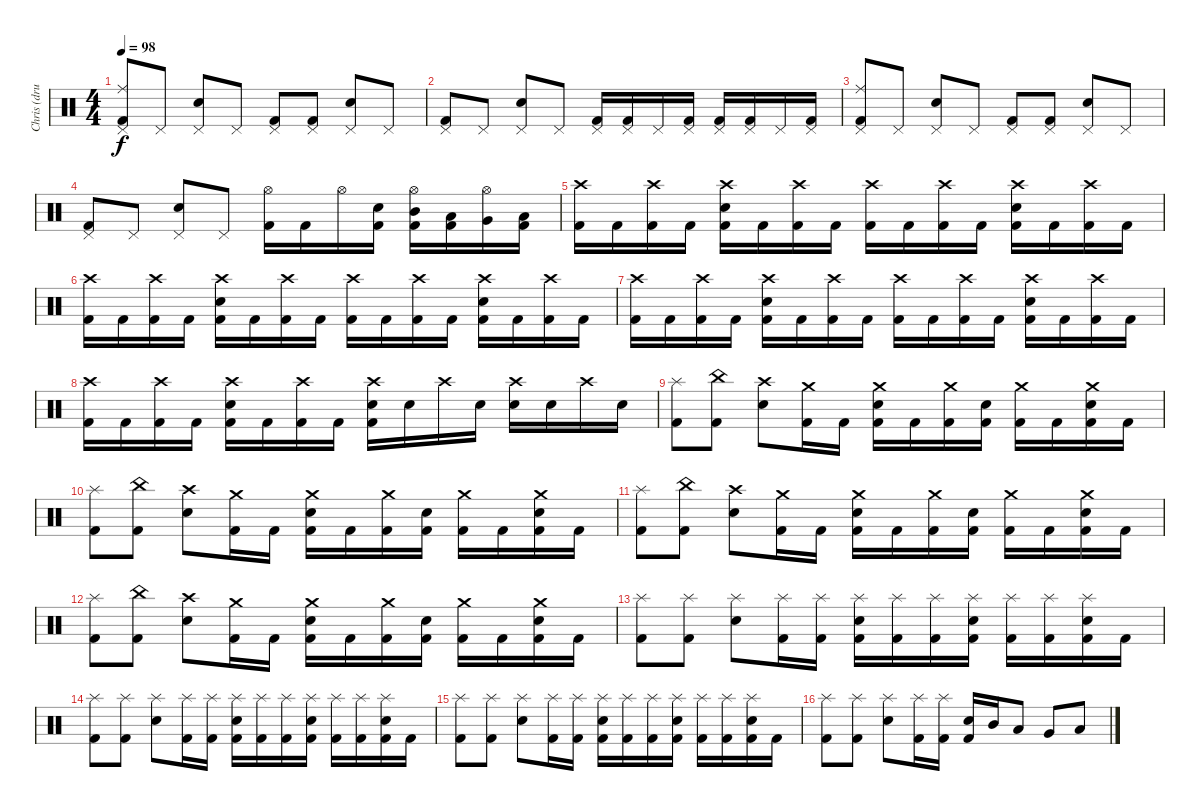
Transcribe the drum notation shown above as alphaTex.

\track ("Chris (drums)" "Chris (dru") {instrument percussion}
\staff {score}
\articulation defaults
\ts (4 4)
\tempo 98
\clef neutral
\ks c
("Ride (middle)" "Pedal Hi-Hat (hit)" "Kick (hit) 2").8{dy f} "Pedal Hi-Hat (hit)".8 ("Pedal Hi-Hat (hit)" "Electric Snare (hit)").8 "Pedal Hi-Hat (hit)".8 ("Pedal Hi-Hat (hit)" "Kick (hit) 2").8 ("Pedal Hi-Hat (hit)" "Kick (hit) 2").8 ("Pedal Hi-Hat (hit)" "Electric Snare (hit)").8 "Pedal Hi-Hat (hit)".8 |
("Pedal Hi-Hat (hit)" "Kick (hit) 2").8 "Pedal Hi-Hat (hit)".8 ("Pedal Hi-Hat (hit)" "Electric Snare (hit)").8 "Pedal Hi-Hat (hit)".8 ("Pedal Hi-Hat (hit)" "Kick (hit) 2").16 ("Pedal Hi-Hat (hit)" "Kick (hit) 2").16 "Pedal Hi-Hat (hit)".16 ("Pedal Hi-Hat (hit)" "Kick (hit) 2").16 ("Pedal Hi-Hat (hit)" "Kick (hit) 2").16 ("Pedal Hi-Hat (hit)" "Kick (hit) 2").16 "Pedal Hi-Hat (hit)".16 ("Pedal Hi-Hat (hit)" "Kick (hit) 2").16 |
("Ride (middle)" "Pedal Hi-Hat (hit)" "Kick (hit) 2").8 "Pedal Hi-Hat (hit)".8 ("Pedal Hi-Hat (hit)" "Electric Snare (hit)").8 "Pedal Hi-Hat (hit)".8 ("Pedal Hi-Hat (hit)" "Kick (hit) 2").8 ("Pedal Hi-Hat (hit)" "Kick (hit) 2").8 ("Pedal Hi-Hat (hit)" "Electric Snare (hit)").8 "Pedal Hi-Hat (hit)".8 |
("Pedal Hi-Hat (hit)" "Kick (hit) 2").8 "Pedal Hi-Hat (hit)".8 ("Pedal Hi-Hat (hit)" "Electric Snare (hit)").8 "Pedal Hi-Hat (hit)".8 ("Hi-Hat (open)" "Kick (hit) 2").16 "Kick (hit) 2".16 "Hi-Hat (open)".16 ("Electric Snare (hit)" "Kick (hit) 2").16 ("Hi-Hat (open)" "Mid Tom (hit)" "Kick (hit) 2").16 ("Low Tom (hit)" "Kick (hit) 2").16 ("Hi-Hat (open)" "Very Low Tom (hit)").16 ("Low Floor Tom (hit)" "Kick (hit) 2").16 |
("Crash high (hit)" "Kick (hit) 2").16 "Kick (hit) 2".16 ("Crash high (hit)" "Kick (hit) 2").16 "Kick (hit) 2".16 ("Crash high (hit)" "Electric Snare (hit)" "Kick (hit) 2").16 "Kick (hit) 2".16 ("Crash high (hit)" "Kick (hit) 2").16 "Kick (hit) 2".16 ("Crash high (hit)" "Kick (hit) 2").16 "Kick (hit) 2".16 ("Crash high (hit)" "Kick (hit) 2").16 "Kick (hit) 2".16 ("Crash high (hit)" "Electric Snare (hit)" "Kick (hit) 2").16 "Kick (hit) 2".16 ("Crash high (hit)" "Kick (hit) 2").16 "Kick (hit) 2".16 |
("Crash high (hit)" "Kick (hit) 2").16 "Kick (hit) 2".16 ("Crash high (hit)" "Kick (hit) 2").16 "Kick (hit) 2".16 ("Crash high (hit)" "Electric Snare (hit)" "Kick (hit) 2").16 "Kick (hit) 2".16 ("Crash high (hit)" "Kick (hit) 2").16 "Kick (hit) 2".16 ("Crash high (hit)" "Kick (hit) 2").16 "Kick (hit) 2".16 ("Crash high (hit)" "Kick (hit) 2").16 "Kick (hit) 2".16 ("Crash high (hit)" "Electric Snare (hit)" "Kick (hit) 2").16 "Kick (hit) 2".16 ("Crash high (hit)" "Kick (hit) 2").16 "Kick (hit) 2".16 |
("Crash high (hit)" "Kick (hit) 2").16 "Kick (hit) 2".16 ("Crash high (hit)" "Kick (hit) 2").16 "Kick (hit) 2".16 ("Crash high (hit)" "Electric Snare (hit)" "Kick (hit) 2").16 "Kick (hit) 2".16 ("Crash high (hit)" "Kick (hit) 2").16 "Kick (hit) 2".16 ("Crash high (hit)" "Kick (hit) 2").16 "Kick (hit) 2".16 ("Crash high (hit)" "Kick (hit) 2").16 "Kick (hit) 2".16 ("Crash high (hit)" "Electric Snare (hit)" "Kick (hit) 2").16 "Kick (hit) 2".16 ("Crash high (hit)" "Kick (hit) 2").16 "Kick (hit) 2".16 |
("Crash high (hit)" "Kick (hit) 2").16 "Kick (hit) 2".16 ("Crash high (hit)" "Kick (hit) 2").16 "Kick (hit) 2".16 ("Crash high (hit)" "Electric Snare (hit)" "Kick (hit) 2").16 "Kick (hit) 2".16 ("Crash high (hit)" "Kick (hit) 2").16 "Kick (hit) 2".16 ("Crash high (hit)" "Electric Snare (hit)" "Kick (hit) 2").16 "Electric Snare (hit)".16 "Crash high (hit)".16 "Electric Snare (hit)".16 ("Crash high (hit)" "Electric Snare (hit)").16 "Electric Snare (hit)".16 "Crash high (hit)".16 "Electric Snare (hit)".16 |
("Splash (hit)" "Kick (hit) 2").8 ("China (hit)" "Kick (hit) 2").8 ("Crash high (hit)" "Electric Snare (hit)").8 ("Crash medium (hit)" "Kick (hit) 2").16 "Kick (hit) 2".16 ("Crash medium (hit)" "Electric Snare (hit)" "Kick (hit) 2").16 "Kick (hit) 2".16 ("Crash medium (hit)" "Kick (hit) 2").16 ("Electric Snare (hit)" "Kick (hit) 2").16 ("Crash medium (hit)" "Kick (hit) 2").16 "Kick (hit) 2".16 ("Crash medium (hit)" "Electric Snare (hit)" "Kick (hit) 2").16 "Kick (hit) 2".16 |
("Splash (hit)" "Kick (hit) 2").8 ("China (hit)" "Kick (hit) 2").8 ("Crash high (hit)" "Electric Snare (hit)").8 ("Crash medium (hit)" "Kick (hit) 2").16 "Kick (hit) 2".16 ("Crash medium (hit)" "Electric Snare (hit)" "Kick (hit) 2").16 "Kick (hit) 2".16 ("Crash medium (hit)" "Kick (hit) 2").16 ("Electric Snare (hit)" "Kick (hit) 2").16 ("Crash medium (hit)" "Kick (hit) 2").16 "Kick (hit) 2".16 ("Crash medium (hit)" "Electric Snare (hit)" "Kick (hit) 2").16 "Kick (hit) 2".16 |
("Splash (hit)" "Kick (hit) 2").8 ("China (hit)" "Kick (hit) 2").8 ("Crash high (hit)" "Electric Snare (hit)").8 ("Crash medium (hit)" "Kick (hit) 2").16 "Kick (hit) 2".16 ("Crash medium (hit)" "Electric Snare (hit)" "Kick (hit) 2").16 "Kick (hit) 2".16 ("Crash medium (hit)" "Kick (hit) 2").16 ("Electric Snare (hit)" "Kick (hit) 2").16 ("Crash medium (hit)" "Kick (hit) 2").16 "Kick (hit) 2".16 ("Crash medium (hit)" "Electric Snare (hit)" "Kick (hit) 2").16 "Kick (hit) 2".16 |
("Splash (hit)" "Kick (hit) 2").8 ("China (hit)" "Kick (hit) 2").8 ("Crash high (hit)" "Electric Snare (hit)").8 ("Crash medium (hit)" "Kick (hit) 2").16 "Kick (hit) 2".16 ("Crash medium (hit)" "Electric Snare (hit)" "Kick (hit) 2").16 "Kick (hit) 2".16 ("Crash medium (hit)" "Kick (hit) 2").16 ("Electric Snare (hit)" "Kick (hit) 2").16 ("Crash medium (hit)" "Kick (hit) 2").16 "Kick (hit) 2".16 ("Crash medium (hit)" "Electric Snare (hit)" "Kick (hit) 2").16 "Kick (hit) 2".16 |
("Splash (hit)" "Kick (hit) 2").8 ("Splash (hit)" "Kick (hit) 2").8 ("Splash (hit)" "Electric Snare (hit)").8 ("Splash (hit)" "Kick (hit) 2").16 ("Splash (hit)" "Kick (hit) 2").16 ("Splash (hit)" "Electric Snare (hit)" "Kick (hit) 2").16 ("Splash (hit)" "Kick (hit) 2").16 ("Splash (hit)" "Kick (hit) 2").16 ("Splash (hit)" "Electric Snare (hit)" "Kick (hit) 2").16 ("Splash (hit)" "Kick (hit) 2").16 ("Splash (hit)" "Kick (hit) 2").16 ("Splash (hit)" "Electric Snare (hit)" "Kick (hit) 2").16 "Kick (hit) 2".16 |
("Splash (hit)" "Kick (hit) 2").8 ("Splash (hit)" "Kick (hit) 2").8 ("Splash (hit)" "Electric Snare (hit)").8 ("Splash (hit)" "Kick (hit) 2").16 ("Splash (hit)" "Kick (hit) 2").16 ("Splash (hit)" "Electric Snare (hit)" "Kick (hit) 2").16 ("Splash (hit)" "Kick (hit) 2").16 ("Splash (hit)" "Kick (hit) 2").16 ("Splash (hit)" "Electric Snare (hit)" "Kick (hit) 2").16 ("Splash (hit)" "Kick (hit) 2").16 ("Splash (hit)" "Kick (hit) 2").16 ("Splash (hit)" "Electric Snare (hit)" "Kick (hit) 2").16 "Kick (hit) 2".16 |
("Splash (hit)" "Kick (hit) 2").8 ("Splash (hit)" "Kick (hit) 2").8 ("Splash (hit)" "Electric Snare (hit)").8 ("Splash (hit)" "Kick (hit) 2").16 ("Splash (hit)" "Kick (hit) 2").16 ("Splash (hit)" "Electric Snare (hit)" "Kick (hit) 2").16 ("Splash (hit)" "Kick (hit) 2").16 ("Splash (hit)" "Kick (hit) 2").16 ("Splash (hit)" "Electric Snare (hit)" "Kick (hit) 2").16 ("Splash (hit)" "Kick (hit) 2").16 ("Splash (hit)" "Kick (hit) 2").16 ("Splash (hit)" "Electric Snare (hit)" "Kick (hit) 2").16 "Kick (hit) 2".16 |
("Splash (hit)" "Kick (hit) 2").8 ("Splash (hit)" "Kick (hit) 2").8 ("Splash (hit)" "Electric Snare (hit)").8 ("Splash (hit)" "Kick (hit) 2").16 ("Splash (hit)" "Kick (hit) 2").16 ("Electric Snare (hit)" "Kick (hit) 2").16 "Mid Tom (hit)".16 "Low Tom (hit)".8 "Very Low Tom (hit)".8 "Low Floor Tom (hit)".8
